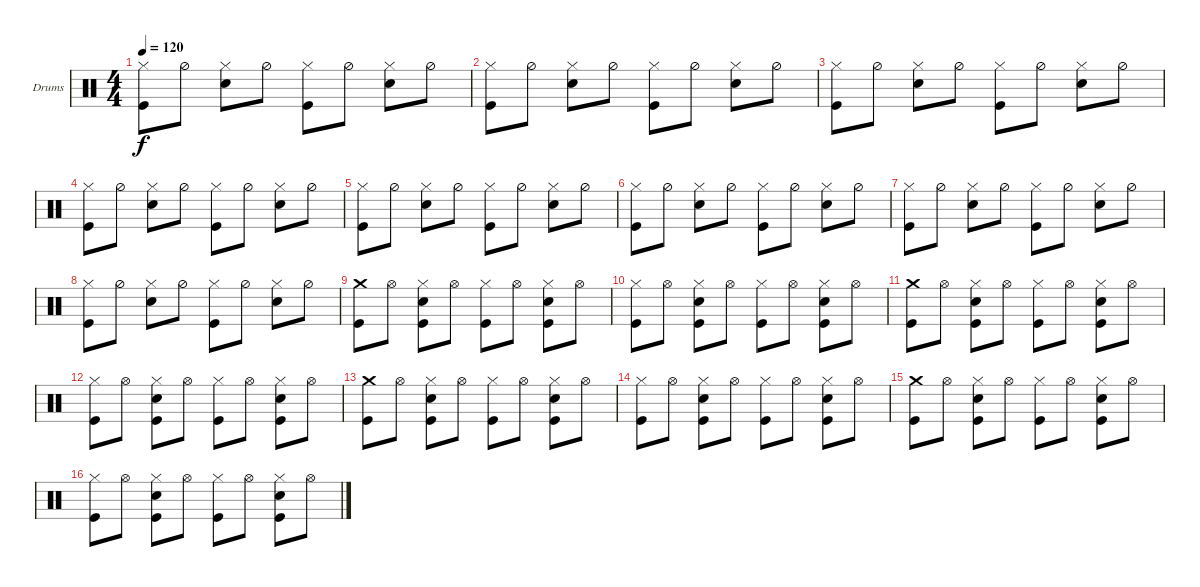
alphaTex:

\bracketExtendMode groupsimilarinstruments
\firstSystemTrackNameOrientation horizontal
\otherSystemsTrackNameOrientation horizontal
\track ("Drumkit" "Drums") {instrument percussion}
\staff {score}
\articulation defaults
\ts (4 4)
\tempo 120
\clef neutral
\ks c
("Hi-Hat (closed)" "Kick (hit)").8{dy f} "Hi-Hat (half)".8 ("Hi-Hat (closed)" "Snare (hit) 2").8 "Hi-Hat (half)".8 ("Hi-Hat (closed)" "Kick (hit)").8 "Hi-Hat (half)".8 ("Hi-Hat (closed)" "Snare (hit) 2").8 "Hi-Hat (half)".8 |
("Hi-Hat (closed)" "Kick (hit)").8 "Hi-Hat (half)".8 ("Hi-Hat (closed)" "Snare (hit) 2").8 "Hi-Hat (half)".8 ("Hi-Hat (closed)" "Kick (hit)").8 "Hi-Hat (half)".8 ("Hi-Hat (closed)" "Snare (hit) 2").8 "Hi-Hat (half)".8 |
("Hi-Hat (closed)" "Kick (hit)").8 "Hi-Hat (half)".8 ("Hi-Hat (closed)" "Snare (hit) 2").8 "Hi-Hat (half)".8 ("Hi-Hat (closed)" "Kick (hit)").8 "Hi-Hat (half)".8 ("Hi-Hat (closed)" "Snare (hit) 2").8 "Hi-Hat (half)".8 |
("Hi-Hat (closed)" "Kick (hit)").8 "Hi-Hat (half)".8 ("Hi-Hat (closed)" "Snare (hit) 2").8 "Hi-Hat (half)".8 ("Hi-Hat (closed)" "Kick (hit)").8 "Hi-Hat (half)".8 ("Hi-Hat (closed)" "Snare (hit) 2").8 "Hi-Hat (half)".8 |
("Hi-Hat (closed)" "Kick (hit)").8 "Hi-Hat (half)".8 ("Hi-Hat (closed)" "Snare (hit) 2").8 "Hi-Hat (half)".8 ("Hi-Hat (closed)" "Kick (hit)").8 "Hi-Hat (half)".8 ("Hi-Hat (closed)" "Snare (hit) 2").8 "Hi-Hat (half)".8 |
("Hi-Hat (closed)" "Kick (hit)").8 "Hi-Hat (half)".8 ("Hi-Hat (closed)" "Snare (hit) 2").8 "Hi-Hat (half)".8 ("Hi-Hat (closed)" "Kick (hit)").8 "Hi-Hat (half)".8 ("Hi-Hat (closed)" "Snare (hit) 2").8 "Hi-Hat (half)".8 |
("Hi-Hat (closed)" "Kick (hit)").8 "Hi-Hat (half)".8 ("Hi-Hat (closed)" "Snare (hit) 2").8 "Hi-Hat (half)".8 ("Hi-Hat (closed)" "Kick (hit)").8 "Hi-Hat (half)".8 ("Hi-Hat (closed)" "Snare (hit) 2").8 "Hi-Hat (half)".8 |
("Hi-Hat (closed)" "Kick (hit)").8 "Hi-Hat (half)".8 ("Hi-Hat (closed)" "Snare (hit) 2").8 "Hi-Hat (half)".8 ("Hi-Hat (closed)" "Kick (hit)").8 "Hi-Hat (half)".8 ("Hi-Hat (closed)" "Snare (hit) 2").8 "Hi-Hat (half)".8 |
("Kick (hit)" "Crash medium (hit)").8 "Hi-Hat (open)".8 ("Hi-Hat (closed)" "Snare (hit) 2" "Kick (hit)").8 "Hi-Hat (open)".8 ("Hi-Hat (closed)" "Kick (hit)").8 "Hi-Hat (open)".8 ("Hi-Hat (closed)" "Snare (hit) 2" "Kick (hit)").8 "Hi-Hat (open)".8 |
("Hi-Hat (closed)" "Kick (hit)").8 "Hi-Hat (open)".8 ("Hi-Hat (closed)" "Snare (hit) 2" "Kick (hit)").8 "Hi-Hat (open)".8 ("Hi-Hat (closed)" "Kick (hit)").8 "Hi-Hat (open)".8 ("Hi-Hat (closed)" "Snare (hit) 2" "Kick (hit)").8 "Hi-Hat (open)".8 |
("Kick (hit)" "Crash medium (hit)").8 "Hi-Hat (open)".8 ("Hi-Hat (closed)" "Snare (hit) 2" "Kick (hit)").8 "Hi-Hat (open)".8 ("Hi-Hat (closed)" "Kick (hit)").8 "Hi-Hat (open)".8 ("Hi-Hat (closed)" "Snare (hit) 2" "Kick (hit)").8 "Hi-Hat (open)".8 |
("Hi-Hat (closed)" "Kick (hit)").8 "Hi-Hat (open)".8 ("Hi-Hat (closed)" "Snare (hit) 2" "Kick (hit)").8 "Hi-Hat (open)".8 ("Hi-Hat (closed)" "Kick (hit)").8 "Hi-Hat (open)".8 ("Hi-Hat (closed)" "Snare (hit) 2" "Kick (hit)").8 "Hi-Hat (open)".8 |
("Kick (hit)" "Crash medium (hit)").8 "Hi-Hat (open)".8 ("Hi-Hat (closed)" "Snare (hit) 2" "Kick (hit)").8 "Hi-Hat (open)".8 ("Hi-Hat (closed)" "Kick (hit)").8 "Hi-Hat (open)".8 ("Hi-Hat (closed)" "Snare (hit) 2" "Kick (hit)").8 "Hi-Hat (open)".8 |
("Hi-Hat (closed)" "Kick (hit)").8 "Hi-Hat (open)".8 ("Hi-Hat (closed)" "Snare (hit) 2" "Kick (hit)").8 "Hi-Hat (open)".8 ("Hi-Hat (closed)" "Kick (hit)").8 "Hi-Hat (open)".8 ("Hi-Hat (closed)" "Snare (hit) 2" "Kick (hit)").8 "Hi-Hat (open)".8 |
("Kick (hit)" "Crash medium (hit)").8 "Hi-Hat (open)".8 ("Hi-Hat (closed)" "Snare (hit) 2" "Kick (hit)").8 "Hi-Hat (open)".8 ("Hi-Hat (closed)" "Kick (hit)").8 "Hi-Hat (open)".8 ("Hi-Hat (closed)" "Snare (hit) 2" "Kick (hit)").8 "Hi-Hat (open)".8 |
("Hi-Hat (closed)" "Kick (hit)").8 "Hi-Hat (open)".8 ("Hi-Hat (closed)" "Snare (hit) 2" "Kick (hit)").8 "Hi-Hat (open)".8 ("Hi-Hat (closed)" "Kick (hit)").8 "Hi-Hat (open)".8 ("Hi-Hat (closed)" "Snare (hit) 2" "Kick (hit)").8 "Hi-Hat (open)".8
